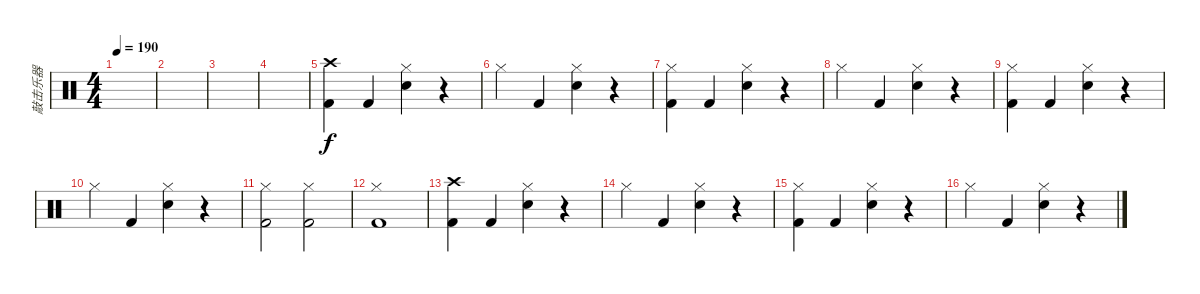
\track ("敲击乐器" "敲击乐器") {instrument percussion}
\staff {score}
\articulation defaults
\ts (4 4)
\tempo 190
\clef neutral
\ks c
|
|
|
|
("Kick (hit) 2" "Crash high (hit)").4 "Kick (hit) 2".4 ("Hi-Hat (closed)" "Electric Snare (hit)").4 r.4 |
"Hi-Hat (closed)".4 "Kick (hit) 2".4 ("Electric Snare (hit)" "Hi-Hat (closed)").4 r.4 |
("Kick (hit) 2" "Hi-Hat (closed)").4 "Kick (hit) 2".4 ("Hi-Hat (closed)" "Electric Snare (hit)").4 r.4 |
"Hi-Hat (closed)".4 "Kick (hit) 2".4 ("Electric Snare (hit)" "Hi-Hat (closed)").4 r.4 |
("Kick (hit) 2" "Hi-Hat (closed)").4 "Kick (hit) 2".4 ("Hi-Hat (closed)" "Electric Snare (hit)").4 r.4 |
"Hi-Hat (closed)".4 "Kick (hit) 2".4 ("Electric Snare (hit)" "Hi-Hat (closed)").4 r.4 |
("Hi-Hat (closed)" "Kick (hit) 2").2 ("Hi-Hat (closed)" "Kick (hit) 2").2 |
("Hi-Hat (closed)" "Kick (hit) 2").1 |
("Kick (hit) 2" "Crash high (hit)").4 "Kick (hit) 2".4 ("Hi-Hat (closed)" "Electric Snare (hit)").4 r.4 |
"Hi-Hat (closed)".4 "Kick (hit) 2".4 ("Electric Snare (hit)" "Hi-Hat (closed)").4 r.4 |
("Kick (hit) 2" "Hi-Hat (closed)").4 "Kick (hit) 2".4 ("Hi-Hat (closed)" "Electric Snare (hit)").4 r.4 |
"Hi-Hat (closed)".4 "Kick (hit) 2".4 ("Electric Snare (hit)" "Hi-Hat (closed)").4 r.4
